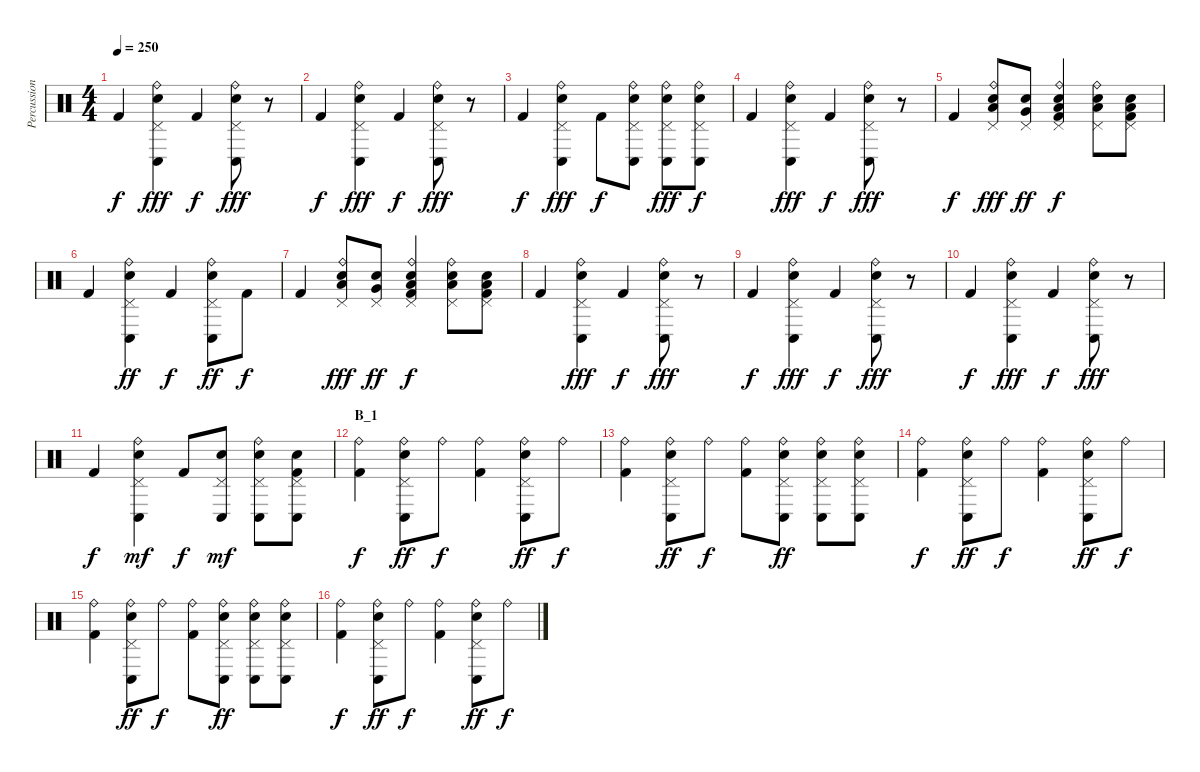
\track ("Percussion" "Percussion") {instrument percussion}
\staff {score}
\articulation defaults
\ts (4 4)
\tempo 250
\clef neutral
\ks c "Kick (hit) 2".4{dy f}
("Ride (bell)" "Pedal Hi-Hat (hit)" "Conga low (hit)" "Electric Snare (hit)").4{dy fff} "Kick (hit) 2".4{dy f} ("Ride (bell)" "Pedal Hi-Hat (hit)" "Conga low (hit)" "Electric Snare (hit)").8{dy fff} r.8 |
"Kick (hit) 2".4{dy f} ("Ride (bell)" "Pedal Hi-Hat (hit)" "Conga low (hit)" "Electric Snare (hit)").4{dy fff} "Kick (hit) 2".4{dy f} ("Ride (bell)" "Pedal Hi-Hat (hit)" "Conga low (hit)" "Electric Snare (hit)").8{dy fff} r.8 |
"Kick (hit) 2".4{dy f} ("Ride (bell)" "Pedal Hi-Hat (hit)" "Conga low (hit)" "Electric Snare (hit)").4{dy fff} "Kick (hit) 2".8{dy f} ("Ride (bell)" "Pedal Hi-Hat (hit)" "Conga low (hit)" "Electric Snare (hit)").8 ("Ride (bell)" "Pedal Hi-Hat (hit)" "Conga low (hit)" "Electric Snare (hit)").8{dy fff} ("Ride (bell)" "Pedal Hi-Hat (hit)" "Conga low (hit)" "Electric Snare (hit)").8{dy f} |
"Kick (hit) 2".4 ("Ride (bell)" "Pedal Hi-Hat (hit)" "Conga low (hit)" "Electric Snare (hit)").4{dy fff} "Kick (hit) 2".4{dy f} ("Ride (bell)" "Pedal Hi-Hat (hit)" "Conga low (hit)" "Electric Snare (hit)").8{dy fff} r.8 |
"Kick (hit) 2".4{dy f} ("Ride (bell)" "Pedal Hi-Hat (hit)" "Low Tom (hit)" "Electric Snare (hit)").8{dy fff} ("Pedal Hi-Hat (hit)" "Very Low Tom (hit)" "Electric Snare (hit)").8{dy ff} ("Ride (bell)" "Pedal Hi-Hat (hit)" "Low Floor Tom (hit)" "Electric Snare (hit)" "Kick (hit) 2").4{dy f} ("Ride (bell)" "Pedal Hi-Hat (hit)" "Low Floor Tom (hit)" "Electric Snare (hit)").8 ("Pedal Hi-Hat (hit)" "Low Floor Tom (hit)" "Electric Snare (hit)" "Kick (hit) 2").8 |
"Kick (hit) 2".4 ("Ride (bell)" "Pedal Hi-Hat (hit)" "Conga low (hit)" "Electric Snare (hit)").4{dy ff} "Kick (hit) 2".4{dy f} ("Ride (bell)" "Pedal Hi-Hat (hit)" "Conga low (hit)" "Electric Snare (hit)").8{dy ff} "Kick (hit) 2".8{dy f} |
"Kick (hit) 2".4 ("Ride (bell)" "Pedal Hi-Hat (hit)" "Low Tom (hit)" "Electric Snare (hit)").8{dy fff} ("Pedal Hi-Hat (hit)" "Very Low Tom (hit)" "Electric Snare (hit)").8{dy ff} ("Ride (bell)" "Pedal Hi-Hat (hit)" "Low Floor Tom (hit)" "Electric Snare (hit)" "Kick (hit) 2").4{dy f} ("Ride (bell)" "Pedal Hi-Hat (hit)" "Low Floor Tom (hit)" "Electric Snare (hit)").8 ("Pedal Hi-Hat (hit)" "Low Floor Tom (hit)" "Electric Snare (hit)" "Kick (hit) 2").8 |
"Kick (hit) 2".4 ("Ride (bell)" "Pedal Hi-Hat (hit)" "Conga low (hit)" "Electric Snare (hit)").4{dy fff} "Kick (hit) 2".4{dy f} ("Ride (bell)" "Pedal Hi-Hat (hit)" "Conga low (hit)" "Electric Snare (hit)").8{dy fff} r.8 |
"Kick (hit) 2".4{dy f} ("Ride (bell)" "Pedal Hi-Hat (hit)" "Conga low (hit)" "Electric Snare (hit)").4{dy fff} "Kick (hit) 2".4{dy f} ("Ride (bell)" "Pedal Hi-Hat (hit)" "Conga low (hit)" "Electric Snare (hit)").8{dy fff} r.8 |
"Kick (hit) 2".4{dy f} ("Ride (bell)" "Pedal Hi-Hat (hit)" "Conga low (hit)" "Electric Snare (hit)").4{dy fff} "Kick (hit) 2".4{dy f} ("Ride (bell)" "Pedal Hi-Hat (hit)" "Conga low (hit)" "Electric Snare (hit)").8{dy fff} r.8 |
"Kick (hit) 2".4{dy f} ("Ride (bell)" "Pedal Hi-Hat (hit)" "Conga low (hit)" "Electric Snare (hit)").4{dy mf} "Kick (hit) 2".8{dy f} ("Pedal Hi-Hat (hit)" "Conga low (hit)" "Electric Snare (hit)").8{dy mf} ("Ride (bell)" "Pedal Hi-Hat (hit)" "Conga low (hit)" "Electric Snare (hit)").8 ("Pedal Hi-Hat (hit)" "Conga low (hit)" "Electric Snare (hit)" "Kick (hit) 2").8 |
\section ("" "B_1")
("Ride (bell)" "Kick (hit) 2").4{dy f} ("Ride (bell)" "Pedal Hi-Hat (hit)" "Conga low (hit)" "Electric Snare (hit)").8{dy ff} "Ride (bell)".8{dy f} ("Ride (bell)" "Kick (hit) 2").4 ("Ride (bell)" "Pedal Hi-Hat (hit)" "Conga low (hit)" "Electric Snare (hit)").8{dy ff} "Ride (bell)".8{dy f} |
("Ride (bell)" "Kick (hit) 2").4 ("Ride (bell)" "Pedal Hi-Hat (hit)" "Conga low (hit)" "Electric Snare (hit)").8{dy ff} "Ride (bell)".8{dy f} ("Ride (bell)" "Kick (hit) 2").8 ("Ride (bell)" "Pedal Hi-Hat (hit)" "Conga low (hit)" "Electric Snare (hit)").8{dy ff} ("Ride (bell)" "Pedal Hi-Hat (hit)" "Conga low (hit)" "Electric Snare (hit)").8 ("Ride (bell)" "Pedal Hi-Hat (hit)" "Conga low (hit)" "Electric Snare (hit)").8 |
("Ride (bell)" "Kick (hit) 2").4{dy f} ("Ride (bell)" "Pedal Hi-Hat (hit)" "Conga low (hit)" "Electric Snare (hit)").8{dy ff} "Ride (bell)".8{dy f} ("Ride (bell)" "Kick (hit) 2").4 ("Ride (bell)" "Pedal Hi-Hat (hit)" "Conga low (hit)" "Electric Snare (hit)").8{dy ff} "Ride (bell)".8{dy f} |
("Ride (bell)" "Kick (hit) 2").4 ("Ride (bell)" "Pedal Hi-Hat (hit)" "Conga low (hit)" "Electric Snare (hit)").8{dy ff} "Ride (bell)".8{dy f} ("Ride (bell)" "Kick (hit) 2").8 ("Ride (bell)" "Pedal Hi-Hat (hit)" "Conga low (hit)" "Electric Snare (hit)").8{dy ff} ("Ride (bell)" "Pedal Hi-Hat (hit)" "Conga low (hit)" "Electric Snare (hit)").8 ("Ride (bell)" "Pedal Hi-Hat (hit)" "Conga low (hit)" "Electric Snare (hit)").8 |
("Ride (bell)" "Kick (hit) 2").4{dy f} ("Ride (bell)" "Pedal Hi-Hat (hit)" "Conga low (hit)" "Electric Snare (hit)").8{dy ff} "Ride (bell)".8{dy f} ("Ride (bell)" "Kick (hit) 2").4 ("Ride (bell)" "Pedal Hi-Hat (hit)" "Conga low (hit)" "Electric Snare (hit)").8{dy ff} "Ride (bell)".8{dy f}
